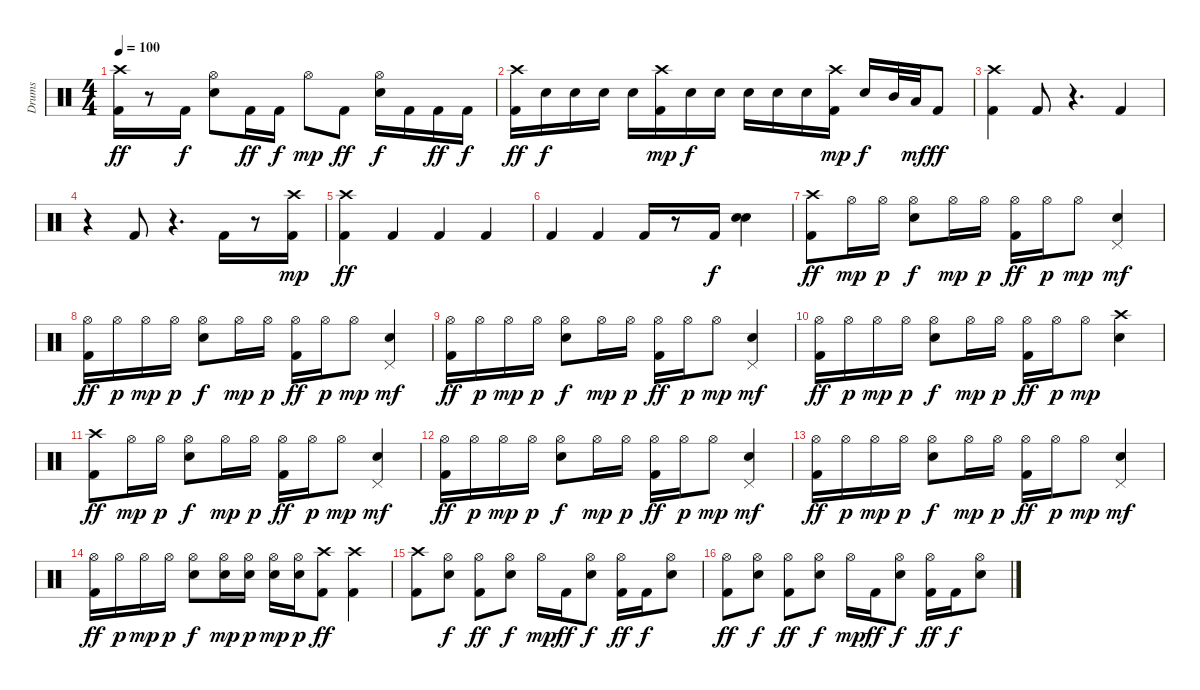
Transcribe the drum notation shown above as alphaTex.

\track ("Drums" "Drums") {instrument percussion}
\staff {score}
\articulation defaults
\ts (4 4)
\tempo 100
\clef neutral
\ks c
("Crash high (hit)" "Kick (hit) 2").16{dy ff} r.8 "Kick (hit) 2".16{dy f} ("Hi-Hat (open)" "Electric Snare (hit)").8 "Kick (hit) 2".16{dy ff} "Kick (hit) 2".16{dy f} "Hi-Hat (open)".8{dy mp} "Kick (hit) 2".8{dy ff} ("Hi-Hat (open)" "Electric Snare (hit)").16{dy f} "Kick (hit) 2".16 "Kick (hit) 2".16{dy ff} "Kick (hit) 2".16{dy f} |
("Crash high (hit)" "Kick (hit) 2").16{dy ff} "Electric Snare (hit)".16{dy f} "Electric Snare (hit)".16 "Electric Snare (hit)".16 "Electric Snare (hit)".16 ("Crash high (hit)" "Kick (hit) 2").16{dy mp} "Electric Snare (hit)".16{dy f} "Electric Snare (hit)".16 "Electric Snare (hit)".16 "Electric Snare (hit)".16 "Electric Snare (hit)".16 ("Crash high (hit)" "Kick (hit) 2").16{dy mp} "Electric Snare (hit)".16{dy f} "Mid Tom (hit)".32 "Low Tom (hit)".32{dy mf} "Kick (hit) 2".8{dy ff} |
("Crash high (hit)" "Kick (hit) 2").4 "Kick (hit) 2".8 r.4{d} "Kick (hit) 2".4 |
r.4 "Kick (hit) 2".8 r.4{d} "Kick (hit) 2".16 r.8 ("Crash high (hit)" "Kick (hit) 2").16{dy mp} |
("Crash high (hit)" "Kick (hit) 2").4{dy ff} "Kick (hit) 2".4 "Kick (hit) 2".4 "Kick (hit) 2".4 |
"Kick (hit) 2".4 "Kick (hit) 2".4 "Kick (hit) 2".16 r.8 "Kick (hit) 2".16{dy f} ("Electric Snare (hit)" "Electric Snare (hit)").4 |
("Crash high (hit)" "Kick (hit) 2").8{dy ff} "Hi-Hat (open)".16{dy mp} "Hi-Hat (open)".16{dy p} ("Hi-Hat (open)" "Electric Snare (hit)").8{dy f} "Hi-Hat (open)".16{dy mp} "Hi-Hat (open)".16{dy p} ("Hi-Hat (open)" "Kick (hit) 2").16{dy ff} "Hi-Hat (open)".16{dy p} "Hi-Hat (open)".8{dy mp} ("Pedal Hi-Hat (hit)" "Electric Snare (hit)").4{dy mf} |
("Hi-Hat (open)" "Kick (hit) 2").16{dy ff} "Hi-Hat (open)".16{dy p} "Hi-Hat (open)".16{dy mp} "Hi-Hat (open)".16{dy p} ("Hi-Hat (open)" "Electric Snare (hit)").8{dy f} "Hi-Hat (open)".16{dy mp} "Hi-Hat (open)".16{dy p} ("Hi-Hat (open)" "Kick (hit) 2").16{dy ff} "Hi-Hat (open)".16{dy p} "Hi-Hat (open)".8{dy mp} ("Pedal Hi-Hat (hit)" "Electric Snare (hit)").4{dy mf} |
("Hi-Hat (open)" "Kick (hit) 2").16{dy ff} "Hi-Hat (open)".16{dy p} "Hi-Hat (open)".16{dy mp} "Hi-Hat (open)".16{dy p} ("Hi-Hat (open)" "Electric Snare (hit)").8{dy f} "Hi-Hat (open)".16{dy mp} "Hi-Hat (open)".16{dy p} ("Hi-Hat (open)" "Kick (hit) 2").16{dy ff} "Hi-Hat (open)".16{dy p} "Hi-Hat (open)".8{dy mp} ("Pedal Hi-Hat (hit)" "Electric Snare (hit)").4{dy mf} |
("Hi-Hat (open)" "Kick (hit) 2").16{dy ff} "Hi-Hat (open)".16{dy p} "Hi-Hat (open)".16{dy mp} "Hi-Hat (open)".16{dy p} ("Hi-Hat (open)" "Electric Snare (hit)").8{dy f} "Hi-Hat (open)".16{dy mp} "Hi-Hat (open)".16{dy p} ("Hi-Hat (open)" "Kick (hit) 2").16{dy ff} "Hi-Hat (open)".16{dy p} "Hi-Hat (open)".8{dy mp} ("Crash high (hit)" "Electric Snare (hit)").4 |
("Crash high (hit)" "Kick (hit) 2").8{dy ff} "Hi-Hat (open)".16{dy mp} "Hi-Hat (open)".16{dy p} ("Hi-Hat (open)" "Electric Snare (hit)").8{dy f} "Hi-Hat (open)".16{dy mp} "Hi-Hat (open)".16{dy p} ("Hi-Hat (open)" "Kick (hit) 2").16{dy ff} "Hi-Hat (open)".16{dy p} "Hi-Hat (open)".8{dy mp} ("Pedal Hi-Hat (hit)" "Electric Snare (hit)").4{dy mf} |
("Hi-Hat (open)" "Kick (hit) 2").16{dy ff} "Hi-Hat (open)".16{dy p} "Hi-Hat (open)".16{dy mp} "Hi-Hat (open)".16{dy p} ("Hi-Hat (open)" "Electric Snare (hit)").8{dy f} "Hi-Hat (open)".16{dy mp} "Hi-Hat (open)".16{dy p} ("Hi-Hat (open)" "Kick (hit) 2").16{dy ff} "Hi-Hat (open)".16{dy p} "Hi-Hat (open)".8{dy mp} ("Pedal Hi-Hat (hit)" "Electric Snare (hit)").4{dy mf} |
("Hi-Hat (open)" "Kick (hit) 2").16{dy ff} "Hi-Hat (open)".16{dy p} "Hi-Hat (open)".16{dy mp} "Hi-Hat (open)".16{dy p} ("Hi-Hat (open)" "Electric Snare (hit)").8{dy f} "Hi-Hat (open)".16{dy mp} "Hi-Hat (open)".16{dy p} ("Hi-Hat (open)" "Kick (hit) 2").16{dy ff} "Hi-Hat (open)".16{dy p} "Hi-Hat (open)".8{dy mp} ("Pedal Hi-Hat (hit)" "Electric Snare (hit)").4{dy mf} |
("Hi-Hat (open)" "Kick (hit) 2").16{dy ff} "Hi-Hat (open)".16{dy p} "Hi-Hat (open)".16{dy mp} "Hi-Hat (open)".16{dy p} ("Hi-Hat (open)" "Electric Snare (hit)").8{dy f} ("Hi-Hat (open)" "Electric Snare (hit)").16{dy mp} ("Hi-Hat (open)" "Electric Snare (hit)").16{dy p} ("Hi-Hat (open)" "Electric Snare (hit)").16{dy mp} ("Hi-Hat (open)" "Electric Snare (hit)").16{dy p} ("Crash high (hit)" "Kick (hit) 2").8{dy ff} ("Crash high (hit)" "Kick (hit) 2").4 |
("Crash high (hit)" "Kick (hit) 2").8 ("Hi-Hat (open)" "Electric Snare (hit)").8{dy f} ("Hi-Hat (open)" "Kick (hit) 2").8{dy ff} ("Hi-Hat (open)" "Electric Snare (hit)").8{dy f} "Hi-Hat (open)".16{dy mp} "Kick (hit) 2".16{dy ff} ("Hi-Hat (open)" "Electric Snare (hit)").8{dy f} ("Hi-Hat (open)" "Kick (hit) 2").16{dy ff} "Kick (hit) 2".16{dy f} ("Hi-Hat (open)" "Electric Snare (hit)").8 |
("Hi-Hat (open)" "Kick (hit) 2").8{dy ff} ("Hi-Hat (open)" "Electric Snare (hit)").8{dy f} ("Hi-Hat (open)" "Kick (hit) 2").8{dy ff} ("Hi-Hat (open)" "Electric Snare (hit)").8{dy f} "Hi-Hat (open)".16{dy mp} "Kick (hit) 2".16{dy ff} ("Hi-Hat (open)" "Electric Snare (hit)").8{dy f} ("Hi-Hat (open)" "Kick (hit) 2").16{dy ff} "Kick (hit) 2".16{dy f} ("Hi-Hat (open)" "Electric Snare (hit)").8
